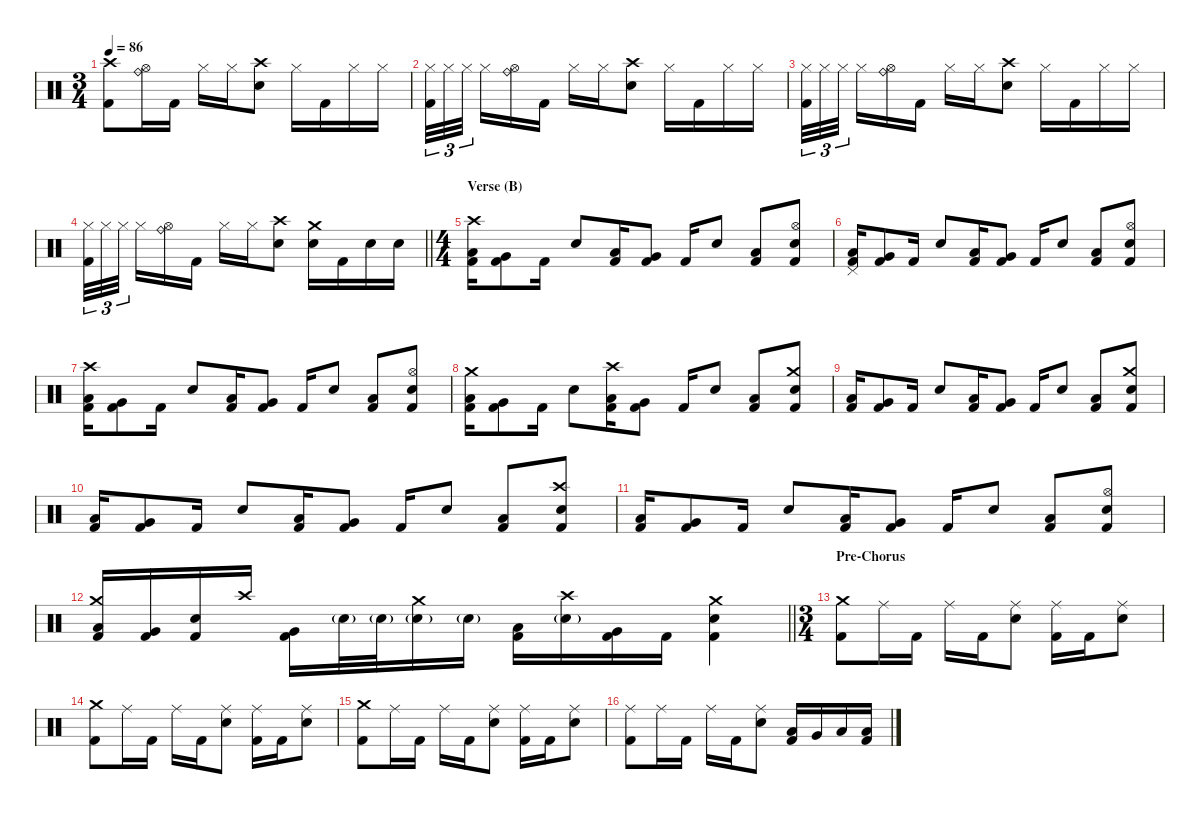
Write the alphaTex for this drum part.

\defaultSystemsLayout 4
\hideDynamics
\bracketExtendMode nobrackets
\singleTrackTrackNamePolicy hidden
\multiTrackTrackNamePolicy hidden
\otherSystemsTrackNameOrientation horizontal
\track ("Drums" "drm.") {instrument percussion}
\staff {score}
\articulation defaults
\ts (3 4)
\tempo 86
\clef neutral
\ks c
("Crash high (hit)" "Kick (hit) 2").8{dy f beam Down} ("Ride (bell)" "Hi-Hat (open)").16{beam Down} "Kick (hit) 2".16{beam Down} "Hi-Hat (closed)".16{beam Down} "Hi-Hat (closed)".16{beam Down} ("Crash high (hit)" "Snare (hit) 2").8{beam Down} "Hi-Hat (closed)".16{beam Down} "Kick (hit) 2".16{beam Down} "Hi-Hat (closed)".16{beam Down} "Hi-Hat (closed)".16{beam Down} |
("Hi-Hat (closed)" "Kick (hit) 2").32{tu (3 2) beam Down} "Hi-Hat (closed)".32{tu (3 2) beam Down} "Hi-Hat (closed)".32{tu (3 2) beam Down} "Hi-Hat (closed)".16{beam Down} ("Ride (bell)" "Hi-Hat (open)").16{beam Down} "Kick (hit) 2".16{beam Down} "Hi-Hat (closed)".16{beam Down} "Hi-Hat (closed)".16{beam Down} ("Crash high (hit)" "Snare (hit) 2").8{beam Down} "Hi-Hat (closed)".16{beam Down} "Kick (hit) 2".16{beam Down} "Hi-Hat (closed)".16{beam Down} "Hi-Hat (closed)".16{beam Down} |
("Hi-Hat (closed)" "Kick (hit) 2").32{tu (3 2) beam Down} "Hi-Hat (closed)".32{tu (3 2) beam Down} "Hi-Hat (closed)".32{tu (3 2) beam Down} "Hi-Hat (closed)".16{beam Down} ("Ride (bell)" "Hi-Hat (open)").16{beam Down} "Kick (hit) 2".16{beam Down} "Hi-Hat (closed)".16{beam Down} "Hi-Hat (closed)".16{beam Down} ("Crash high (hit)" "Snare (hit) 2").8{beam Down} "Hi-Hat (closed)".16{beam Down} "Kick (hit) 2".16{beam Down} "Hi-Hat (closed)".16{beam Down} "Hi-Hat (closed)".16{beam Down} |
\barLineRight lightlight
("Hi-Hat (closed)" "Kick (hit) 2").32{tu (3 2) beam Down} "Hi-Hat (closed)".32{tu (3 2) beam Down} "Hi-Hat (closed)".32{tu (3 2) beam Down} "Hi-Hat (closed)".16{beam Down} ("Ride (bell)" "Hi-Hat (open)").16{beam Down} "Kick (hit) 2".16{beam Down} "Hi-Hat (closed)".16{beam Down} "Hi-Hat (closed)".16{beam Down} ("Crash high (hit)" "Snare (hit) 2").8{beam Down} ("Crash medium (hit)" "Snare (hit) 2").16{beam Down} "Kick (hit) 2".16{beam Down} "Snare (hit) 2".16{beam Down} "Snare (hit) 2".16{beam Down} |
\ts (4 4)
\beaming (8 2 2 2 2)
\section ("" "Verse (B)")
("Crash high (hit)" "Low Floor Tom (hit)" "Kick (hit) 2").16{beam Down} ("Very Low Tom (hit)" "Kick (hit) 2").8{beam Down} "Kick (hit) 2".16{beam Down} "Snare (hit) 2".8{beam Up} ("Low Floor Tom (hit)" "Kick (hit) 2").16{beam Up} ("Very Low Tom (hit)" "Kick (hit) 2").8{beam Up} "Kick (hit) 2".16{beam Up} "Snare (hit) 2".8{beam Up} ("Low Floor Tom (hit)" "Kick (hit) 2").8{beam Up} ("Hi-Hat (open)" "Snare (hit) 2" "Kick (hit) 2").8{beam Up} |
("Pedal Hi-Hat (hit)" "Low Floor Tom (hit)" "Kick (hit) 2").16{beam Up} ("Very Low Tom (hit)" "Kick (hit) 2").8{beam Up} "Kick (hit) 2".16{beam Up} "Snare (hit) 2".8{beam Up} ("Low Floor Tom (hit)" "Kick (hit) 2").16{beam Up} ("Very Low Tom (hit)" "Kick (hit) 2").8{beam Up} "Kick (hit) 2".16{beam Up} "Snare (hit) 2".8{beam Up} ("Low Floor Tom (hit)" "Kick (hit) 2").8{beam Up} ("Hi-Hat (open)" "Snare (hit) 2" "Kick (hit) 2").8{beam Up} |
("Crash high (hit)" "Low Floor Tom (hit)" "Kick (hit) 2").16{beam Down} ("Very Low Tom (hit)" "Kick (hit) 2").8{beam Down} "Kick (hit) 2".16{beam Down} "Snare (hit) 2".8{beam Up} ("Low Floor Tom (hit)" "Kick (hit) 2").16{beam Up} ("Very Low Tom (hit)" "Kick (hit) 2").8{beam Up} "Kick (hit) 2".16{beam Up} "Snare (hit) 2".8{beam Up} ("Low Floor Tom (hit)" "Kick (hit) 2").8{beam Up} ("Hi-Hat (open)" "Snare (hit) 2" "Kick (hit) 2").8{beam Up} |
("Crash medium (hit)" "Low Floor Tom (hit)" "Kick (hit) 2").16{beam Down} ("Very Low Tom (hit)" "Kick (hit) 2").8{beam Down} "Kick (hit) 2".16{beam Down} "Snare (hit) 2".8{beam Down} ("Crash high (hit)" "Low Floor Tom (hit)" "Kick (hit) 2").16{beam Down} ("Very Low Tom (hit)" "Kick (hit) 2").8{beam Down} "Kick (hit) 2".16{beam Up} "Snare (hit) 2".8{beam Up} ("Low Floor Tom (hit)" "Kick (hit) 2").8{beam Up} ("Crash medium (hit)" "Snare (hit) 2" "Kick (hit) 2").8{beam Up} |
("Low Floor Tom (hit)" "Kick (hit) 2").16{beam Up} ("Very Low Tom (hit)" "Kick (hit) 2").8{beam Up} "Kick (hit) 2".16{beam Up} "Snare (hit) 2".8{beam Up} ("Low Floor Tom (hit)" "Kick (hit) 2").16{beam Up} ("Very Low Tom (hit)" "Kick (hit) 2").8{beam Up} "Kick (hit) 2".16{beam Up} "Snare (hit) 2".8{beam Up} ("Low Floor Tom (hit)" "Kick (hit) 2").8{beam Up} ("Crash medium (hit)" "Snare (hit) 2" "Kick (hit) 2").8{beam Up} |
("Low Floor Tom (hit)" "Kick (hit) 2").16{beam Up} ("Very Low Tom (hit)" "Kick (hit) 2").8{beam Up} "Kick (hit) 2".16{beam Up} "Snare (hit) 2".8{beam Up} ("Low Floor Tom (hit)" "Kick (hit) 2").16{beam Up} ("Very Low Tom (hit)" "Kick (hit) 2").8{beam Up} "Kick (hit) 2".16{beam Up} "Snare (hit) 2".8{beam Up} ("Low Floor Tom (hit)" "Kick (hit) 2").8{beam Up} ("Crash high (hit)" "Snare (hit) 2" "Kick (hit) 2").8{beam Up} |
("Low Floor Tom (hit)" "Kick (hit) 2").16{beam Up} ("Very Low Tom (hit)" "Kick (hit) 2").8{beam Up} "Kick (hit) 2".16{beam Up} "Snare (hit) 2".8{beam Up} ("Low Floor Tom (hit)" "Kick (hit) 2").16{beam Up} ("Very Low Tom (hit)" "Kick (hit) 2").8{beam Up} "Kick (hit) 2".16{beam Up} "Snare (hit) 2".8{beam Up} ("Low Floor Tom (hit)" "Kick (hit) 2").8{beam Up} ("Hi-Hat (open)" "Snare (hit) 2" "Kick (hit) 2").8{beam Up} |
\barLineRight lightlight
("Crash medium (hit)" "Low Floor Tom (hit)" "Kick (hit) 2").16{beam Up} ("Very Low Tom (hit)" "Kick (hit) 2").16{beam Up} ("Snare (hit) 2" "Kick (hit) 2").16{beam Up} "Crash high (hit)".16{beam Up} ("Very Low Tom (hit)" "Kick (hit) 2").16{beam Down} "Snare (hit) 2"{g}.32{dy mf beam Down} "Snare (hit) 2"{g}.32{beam Down} ("Crash medium (hit)" "Snare (hit) 2"{g}).16{dy f beam Down} "Snare (hit) 2"{g}.16{dy mf beam Down} ("Low Floor Tom (hit)" "Kick (hit) 2").16{dy f beam Down} ("Crash high (hit)" "Snare (hit) 2"{g}).16{beam Down} ("Very Low Tom (hit)" "Kick (hit) 2").16{beam Down} "Kick (hit) 2".16{beam Down} ("Crash medium (hit)" "Snare (hit) 2" "Kick (hit) 2").4{beam Down} |
\ts (3 4)
\beaming (8 2 2 2)
\section ("" "Pre-Chorus")
("Crash medium (hit)" "Kick (hit) 2").8{beam Down} "Ride (middle)".16{beam Down} "Kick (hit) 2".16{beam Down} "Ride (middle)".16{beam Down} "Kick (hit) 2".16{beam Down} ("Ride (middle)" "Snare (hit) 2").8{beam Down} ("Ride (middle)" "Kick (hit) 2").16{beam Down} "Kick (hit) 2".16{beam Down} ("Ride (middle)" "Snare (hit) 2").8{beam Down} |
("Crash medium (hit)" "Kick (hit) 2").8{beam Down} "Ride (middle)".16{beam Down} "Kick (hit) 2".16{beam Down} "Ride (middle)".16{beam Down} "Kick (hit) 2".16{beam Down} ("Ride (middle)" "Snare (hit) 2").8{beam Down} ("Ride (middle)" "Kick (hit) 2").16{beam Down} "Kick (hit) 2".16{beam Down} ("Ride (middle)" "Snare (hit) 2").8{beam Down} |
("Crash medium (hit)" "Kick (hit) 2").8{beam Down} "Ride (middle)".16{beam Down} "Kick (hit) 2".16{beam Down} "Ride (middle)".16{beam Down} "Kick (hit) 2".16{beam Down} ("Ride (middle)" "Snare (hit) 2").8{beam Down} ("Ride (middle)" "Kick (hit) 2").16{beam Down} "Kick (hit) 2".16{beam Down} ("Ride (middle)" "Snare (hit) 2").8{beam Down} |
("Ride (middle)" "Kick (hit) 2").8{beam Down} "Ride (middle)".16{beam Down} "Kick (hit) 2".16{beam Down} "Ride (middle)".16{beam Down} "Kick (hit) 2".16{beam Down} ("Ride (middle)" "Snare (hit) 2").8{beam Down} ("Low Tom (hit)" "Kick (hit) 2").16{beam Up} "Very Low Tom (hit)".16{beam Up} "Low Floor Tom (hit)".16{beam Up} ("Low Floor Tom (hit)" "Kick (hit) 2").16{beam Up}
